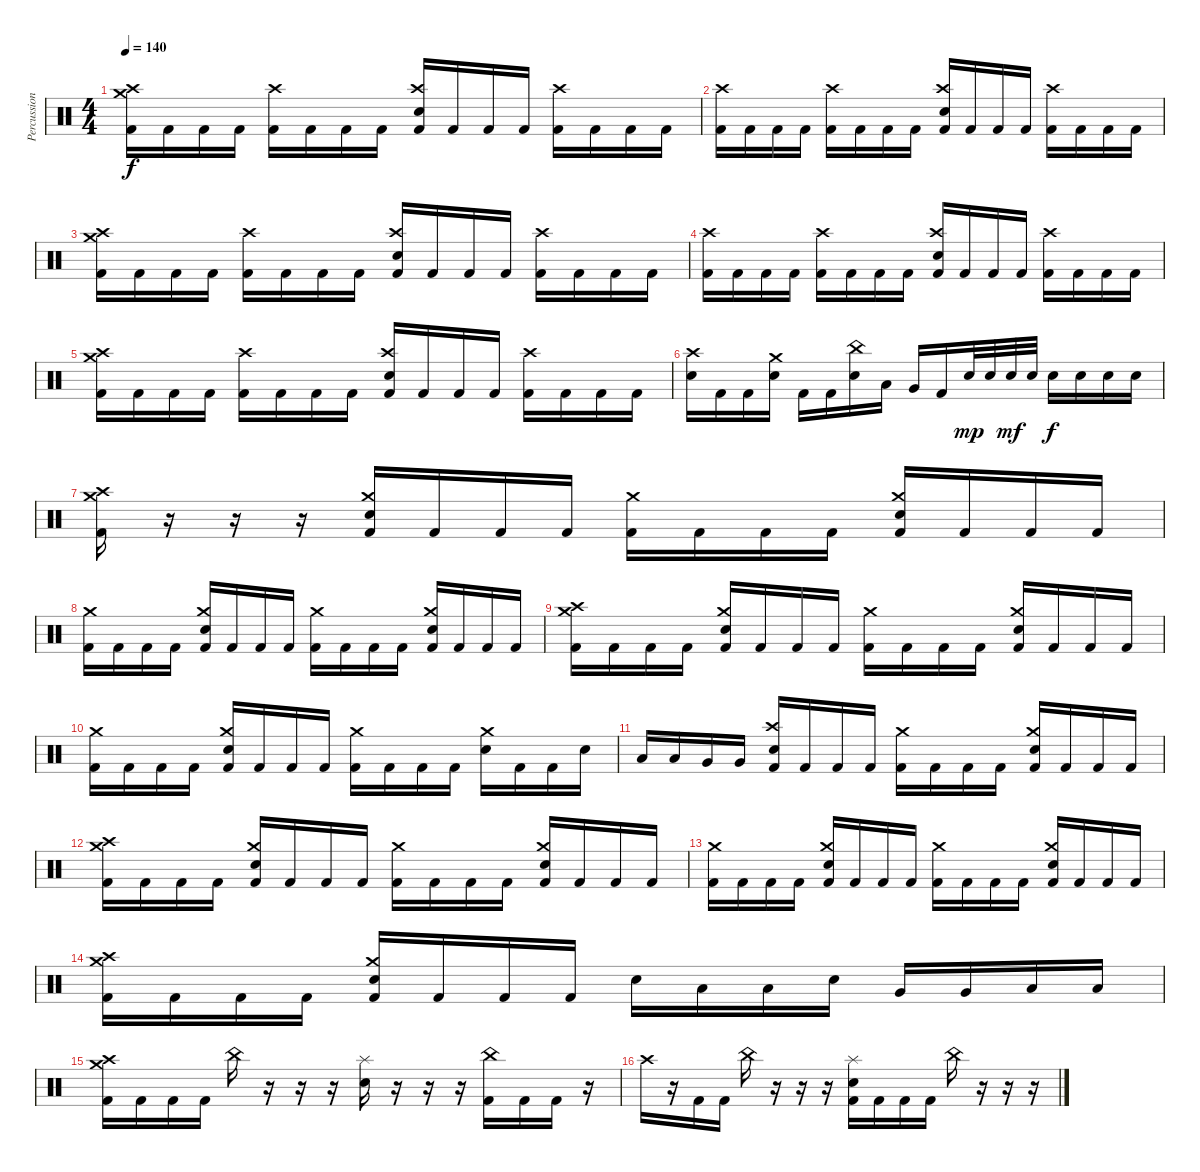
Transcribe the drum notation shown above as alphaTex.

\track ("Percussioni" "Percussion") {mute instrument percussion}
\staff {score}
\articulation defaults
\ts (4 4)
\tempo 140
\clef neutral
\ks c
("Kick (hit) 2" "Crash high (hit)" "Crash medium (hit)").16{dy f} "Kick (hit) 2".16 "Kick (hit) 2".16 "Kick (hit) 2".16 ("Kick (hit) 2" "Crash high (hit)").16 "Kick (hit) 2".16 "Kick (hit) 2".16 "Kick (hit) 2".16 ("Kick (hit) 2" "Snare (hit) 2" "Crash high (hit)").16 "Kick (hit) 2".16 "Kick (hit) 2".16 "Kick (hit) 2".16 ("Kick (hit) 2" "Crash high (hit)").16 "Kick (hit) 2".16 "Kick (hit) 2".16 "Kick (hit) 2".16 |
("Kick (hit) 2" "Crash high (hit)").16 "Kick (hit) 2".16 "Kick (hit) 2".16 "Kick (hit) 2".16 ("Kick (hit) 2" "Crash high (hit)").16 "Kick (hit) 2".16 "Kick (hit) 2".16 "Kick (hit) 2".16 ("Kick (hit) 2" "Snare (hit) 2" "Crash high (hit)").16 "Kick (hit) 2".16 "Kick (hit) 2".16 "Kick (hit) 2".16 ("Kick (hit) 2" "Crash high (hit)").16 "Kick (hit) 2".16 "Kick (hit) 2".16 "Kick (hit) 2".16 |
("Kick (hit) 2" "Crash high (hit)" "Crash medium (hit)").16 "Kick (hit) 2".16 "Kick (hit) 2".16 "Kick (hit) 2".16 ("Kick (hit) 2" "Crash high (hit)").16 "Kick (hit) 2".16 "Kick (hit) 2".16 "Kick (hit) 2".16 ("Kick (hit) 2" "Snare (hit) 2" "Crash high (hit)").16 "Kick (hit) 2".16 "Kick (hit) 2".16 "Kick (hit) 2".16 ("Kick (hit) 2" "Crash high (hit)").16 "Kick (hit) 2".16 "Kick (hit) 2".16 "Kick (hit) 2".16 |
("Kick (hit) 2" "Crash high (hit)").16 "Kick (hit) 2".16 "Kick (hit) 2".16 "Kick (hit) 2".16 ("Kick (hit) 2" "Crash high (hit)").16 "Kick (hit) 2".16 "Kick (hit) 2".16 "Kick (hit) 2".16 ("Kick (hit) 2" "Snare (hit) 2" "Crash high (hit)").16 "Kick (hit) 2".16 "Kick (hit) 2".16 "Kick (hit) 2".16 ("Kick (hit) 2" "Crash high (hit)").16 "Kick (hit) 2".16 "Kick (hit) 2".16 "Kick (hit) 2".16 |
("Kick (hit) 2" "Crash high (hit)" "Crash medium (hit)").16 "Kick (hit) 2".16 "Kick (hit) 2".16 "Kick (hit) 2".16 ("Kick (hit) 2" "Crash high (hit)").16 "Kick (hit) 2".16 "Kick (hit) 2".16 "Kick (hit) 2".16 ("Kick (hit) 2" "Snare (hit) 2" "Crash high (hit)").16 "Kick (hit) 2".16 "Kick (hit) 2".16 "Kick (hit) 2".16 ("Kick (hit) 2" "Crash high (hit)").16 "Kick (hit) 2".16 "Kick (hit) 2".16 "Kick (hit) 2".16 |
("Snare (hit) 2" "Crash high (hit)").16 "Kick (hit) 2".16 "Kick (hit) 2".16 ("Snare (hit) 2" "Crash medium (hit)").16 "Kick (hit) 2".16 "Kick (hit) 2".16 ("Snare (hit) 2" "China (hit)").16 "Low Tom (hit)".16 "Very Low Tom (hit)".16 "Kick (hit) 2".16 "Snare (hit) 2".32{dy mp} "Snare (hit) 2".32 "Snare (hit) 2".32{dy mf} "Snare (hit) 2".32 "Snare (hit) 2".16{dy f} "Snare (hit) 2".16 "Snare (hit) 2".16 "Snare (hit) 2".16 |
("Crash high (hit)" "Crash medium (hit)" "Kick (hit) 2").16 r.16 r.16 r.16 ("Crash medium (hit)" "Snare (hit) 2" "Kick (hit) 2").16 "Kick (hit) 2".16 "Kick (hit) 2".16 "Kick (hit) 2".16 ("Crash medium (hit)" "Kick (hit) 2").16 "Kick (hit) 2".16 "Kick (hit) 2".16 "Kick (hit) 2".16 ("Crash medium (hit)" "Snare (hit) 2" "Kick (hit) 2").16 "Kick (hit) 2".16 "Kick (hit) 2".16 "Kick (hit) 2".16 |
("Crash medium (hit)" "Kick (hit) 2").16 "Kick (hit) 2".16 "Kick (hit) 2".16 "Kick (hit) 2".16 ("Crash medium (hit)" "Snare (hit) 2" "Kick (hit) 2").16 "Kick (hit) 2".16 "Kick (hit) 2".16 "Kick (hit) 2".16 ("Crash medium (hit)" "Kick (hit) 2").16 "Kick (hit) 2".16 "Kick (hit) 2".16 "Kick (hit) 2".16 ("Crash medium (hit)" "Snare (hit) 2" "Kick (hit) 2").16 "Kick (hit) 2".16 "Kick (hit) 2".16 "Kick (hit) 2".16 |
("Crash high (hit)" "Crash medium (hit)" "Kick (hit) 2").16 "Kick (hit) 2".16 "Kick (hit) 2".16 "Kick (hit) 2".16 ("Crash medium (hit)" "Snare (hit) 2" "Kick (hit) 2").16 "Kick (hit) 2".16 "Kick (hit) 2".16 "Kick (hit) 2".16 ("Crash medium (hit)" "Kick (hit) 2").16 "Kick (hit) 2".16 "Kick (hit) 2".16 "Kick (hit) 2".16 ("Crash medium (hit)" "Snare (hit) 2" "Kick (hit) 2").16 "Kick (hit) 2".16 "Kick (hit) 2".16 "Kick (hit) 2".16 |
("Crash medium (hit)" "Kick (hit) 2").16 "Kick (hit) 2".16 "Kick (hit) 2".16 "Kick (hit) 2".16 ("Crash medium (hit)" "Snare (hit) 2" "Kick (hit) 2").16 "Kick (hit) 2".16 "Kick (hit) 2".16 "Kick (hit) 2".16 ("Crash medium (hit)" "Kick (hit) 2").16 "Kick (hit) 2".16 "Kick (hit) 2".16 "Kick (hit) 2".16 ("Crash medium (hit)" "Snare (hit) 2").16 "Kick (hit) 2".16 "Kick (hit) 2".16 "Snare (hit) 2".16 |
"Low Tom (hit)".16 "Low Tom (hit)".16 "Very Low Tom (hit)".16 "Very Low Tom (hit)".16 ("Crash high (hit)" "Snare (hit) 2" "Kick (hit) 2").16 "Kick (hit) 2".16 "Kick (hit) 2".16 "Kick (hit) 2".16 ("Crash medium (hit)" "Kick (hit) 2").16 "Kick (hit) 2".16 "Kick (hit) 2".16 "Kick (hit) 2".16 ("Crash medium (hit)" "Snare (hit) 2" "Kick (hit) 2").16 "Kick (hit) 2".16 "Kick (hit) 2".16 "Kick (hit) 2".16 |
("Crash high (hit)" "Crash medium (hit)" "Kick (hit) 2").16 "Kick (hit) 2".16 "Kick (hit) 2".16 "Kick (hit) 2".16 ("Crash medium (hit)" "Snare (hit) 2" "Kick (hit) 2").16 "Kick (hit) 2".16 "Kick (hit) 2".16 "Kick (hit) 2".16 ("Crash medium (hit)" "Kick (hit) 2").16 "Kick (hit) 2".16 "Kick (hit) 2".16 "Kick (hit) 2".16 ("Crash medium (hit)" "Snare (hit) 2" "Kick (hit) 2").16 "Kick (hit) 2".16 "Kick (hit) 2".16 "Kick (hit) 2".16 |
("Crash medium (hit)" "Kick (hit) 2").16 "Kick (hit) 2".16 "Kick (hit) 2".16 "Kick (hit) 2".16 ("Crash medium (hit)" "Snare (hit) 2" "Kick (hit) 2").16 "Kick (hit) 2".16 "Kick (hit) 2".16 "Kick (hit) 2".16 ("Crash medium (hit)" "Kick (hit) 2").16 "Kick (hit) 2".16 "Kick (hit) 2".16 "Kick (hit) 2".16 ("Crash medium (hit)" "Snare (hit) 2" "Kick (hit) 2").16 "Kick (hit) 2".16 "Kick (hit) 2".16 "Kick (hit) 2".16 |
("Crash high (hit)" "Crash medium (hit)" "Kick (hit) 2").16 "Kick (hit) 2".16 "Kick (hit) 2".16 "Kick (hit) 2".16 ("Crash medium (hit)" "Snare (hit) 2" "Kick (hit) 2").16 "Kick (hit) 2".16 "Kick (hit) 2".16 "Kick (hit) 2".16 "Snare (hit) 2".16 "Low Tom (hit)".16 "Low Tom (hit)".16 "Snare (hit) 2".16 "Very Low Tom (hit)".16 "Very Low Tom (hit)".16 "Low Floor Tom (hit)".16 "Low Floor Tom (hit)".16 |
("Kick (hit) 2" "Crash medium (hit)" "Crash high (hit)").16 "Kick (hit) 2".16 "Kick (hit) 2".16 "Kick (hit) 2".16 "China (hit)".16 r.16 r.16 r.16 ("Snare (hit) 2" "Splash (hit)").16 r.16 r.16 r.16 ("Kick (hit) 2" "China (hit)").16 "Kick (hit) 2".16 "Kick (hit) 2".16 r.16 |
"Crash high (hit)".16 r.16 "Kick (hit) 2".16 "Kick (hit) 2".16 "China (hit)".16 r.16 r.16 r.16 ("Splash (hit)" "Snare (hit) 2" "Kick (hit) 2").16 "Kick (hit) 2".16 "Kick (hit) 2".16 "Kick (hit) 2".16 "China (hit)".16 r.16 r.16 r.16
